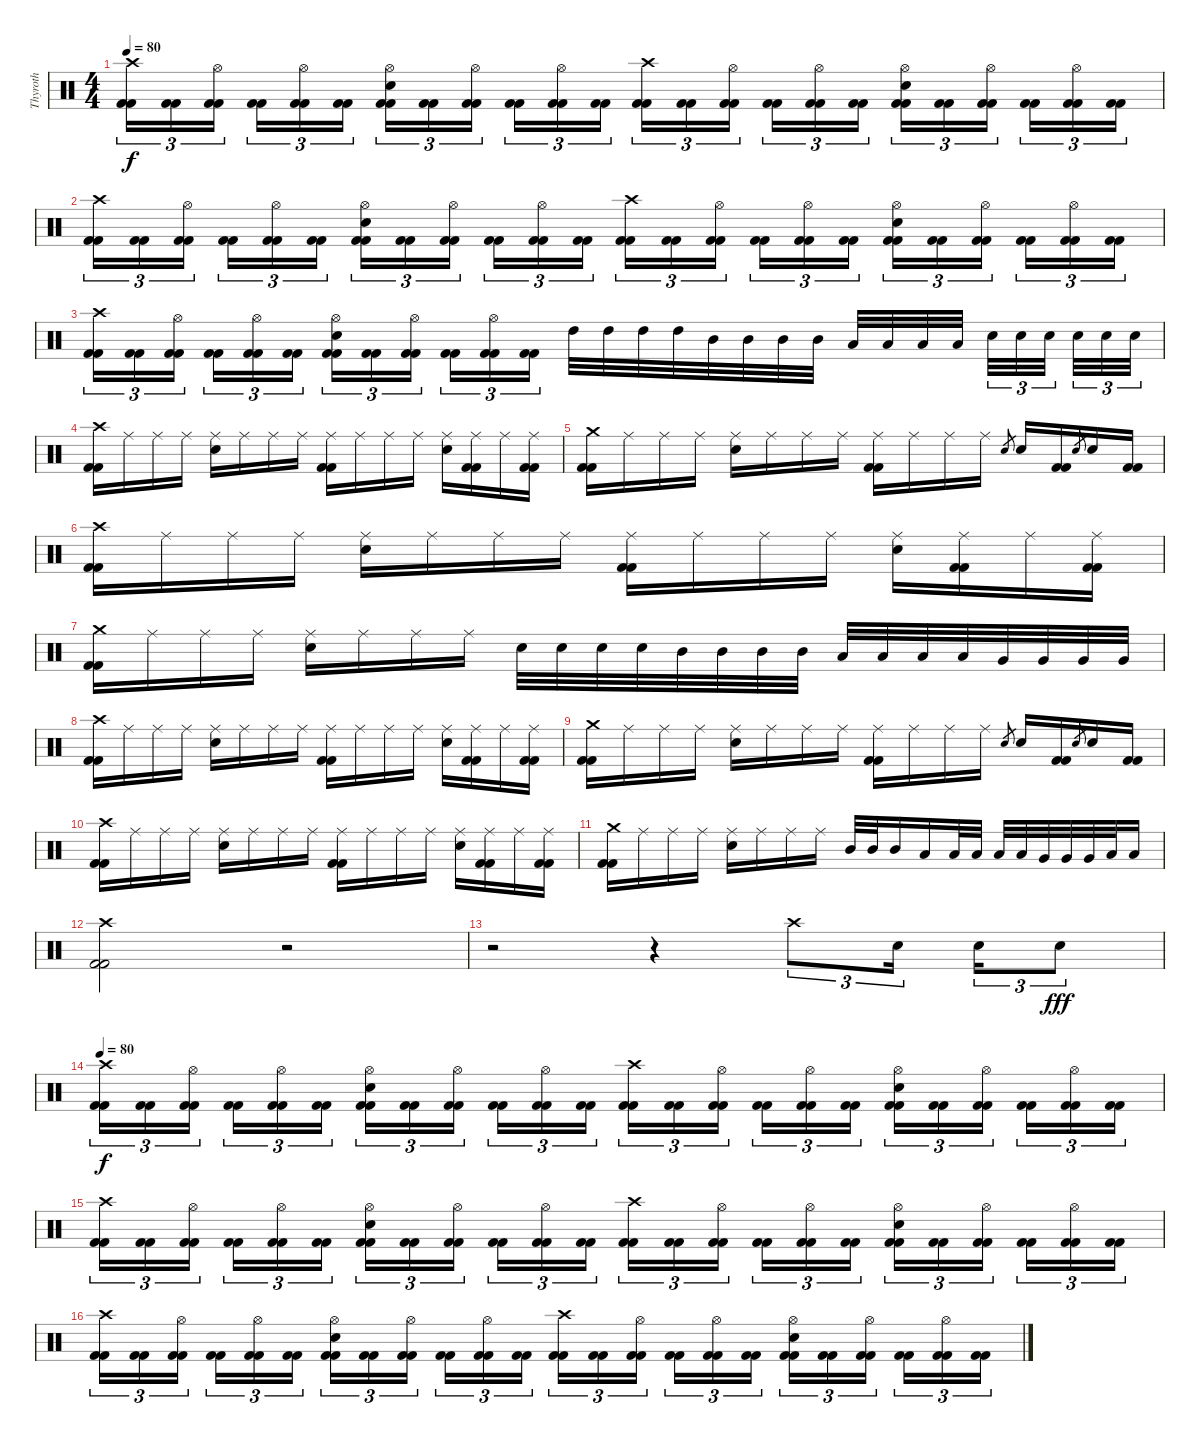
\track ("Thyroth" "Thyroth") {instrument percussion}
\staff {score}
\articulation defaults
\ts (4 4)
\tempo 80
\clef neutral
\ks c
("Kick (hit) 2" "Kick (hit) 2" "Crash high (hit)").16{tu (3 2) dy f} ("Kick (hit) 2" "Kick (hit) 2").16{tu (3 2)} ("Kick (hit) 2" "Kick (hit) 2" "Hi-Hat (open)").16{tu (3 2)} ("Kick (hit) 2" "Kick (hit) 2").16{tu (3 2)} ("Kick (hit) 2" "Kick (hit) 2" "Hi-Hat (open)").16{tu (3 2)} ("Kick (hit) 2" "Kick (hit) 2").16{tu (3 2)} ("Kick (hit) 2" "Kick (hit) 2" "Snare (hit) 2" "Hi-Hat (open)").16{tu (3 2)} ("Kick (hit) 2" "Kick (hit) 2").16{tu (3 2)} ("Kick (hit) 2" "Kick (hit) 2" "Hi-Hat (open)").16{tu (3 2)} ("Kick (hit) 2" "Kick (hit) 2").16{tu (3 2)} ("Kick (hit) 2" "Kick (hit) 2" "Hi-Hat (open)").16{tu (3 2)} ("Kick (hit) 2" "Kick (hit) 2").16{tu (3 2)} ("Kick (hit) 2" "Kick (hit) 2" "Crash high (hit)").16{tu (3 2)} ("Kick (hit) 2" "Kick (hit) 2").16{tu (3 2)} ("Kick (hit) 2" "Kick (hit) 2" "Hi-Hat (open)").16{tu (3 2)} ("Kick (hit) 2" "Kick (hit) 2").16{tu (3 2)} ("Kick (hit) 2" "Kick (hit) 2" "Hi-Hat (open)").16{tu (3 2)} ("Kick (hit) 2" "Kick (hit) 2").16{tu (3 2)} ("Kick (hit) 2" "Kick (hit) 2" "Snare (hit) 2" "Hi-Hat (open)").16{tu (3 2)} ("Kick (hit) 2" "Kick (hit) 2").16{tu (3 2)} ("Kick (hit) 2" "Kick (hit) 2" "Hi-Hat (open)").16{tu (3 2)} ("Kick (hit) 2" "Kick (hit) 2").16{tu (3 2)} ("Kick (hit) 2" "Kick (hit) 2" "Hi-Hat (open)").16{tu (3 2)} ("Kick (hit) 2" "Kick (hit) 2").16{tu (3 2)} |
("Kick (hit) 2" "Kick (hit) 2" "Crash high (hit)").16{tu (3 2)} ("Kick (hit) 2" "Kick (hit) 2").16{tu (3 2)} ("Kick (hit) 2" "Kick (hit) 2" "Hi-Hat (open)").16{tu (3 2)} ("Kick (hit) 2" "Kick (hit) 2").16{tu (3 2)} ("Kick (hit) 2" "Kick (hit) 2" "Hi-Hat (open)").16{tu (3 2)} ("Kick (hit) 2" "Kick (hit) 2").16{tu (3 2)} ("Kick (hit) 2" "Kick (hit) 2" "Snare (hit) 2" "Hi-Hat (open)").16{tu (3 2)} ("Kick (hit) 2" "Kick (hit) 2").16{tu (3 2)} ("Kick (hit) 2" "Kick (hit) 2" "Hi-Hat (open)").16{tu (3 2)} ("Kick (hit) 2" "Kick (hit) 2").16{tu (3 2)} ("Kick (hit) 2" "Kick (hit) 2" "Hi-Hat (open)").16{tu (3 2)} ("Kick (hit) 2" "Kick (hit) 2").16{tu (3 2)} ("Kick (hit) 2" "Kick (hit) 2" "Crash high (hit)").16{tu (3 2)} ("Kick (hit) 2" "Kick (hit) 2").16{tu (3 2)} ("Kick (hit) 2" "Kick (hit) 2" "Hi-Hat (open)").16{tu (3 2)} ("Kick (hit) 2" "Kick (hit) 2").16{tu (3 2)} ("Kick (hit) 2" "Kick (hit) 2" "Hi-Hat (open)").16{tu (3 2)} ("Kick (hit) 2" "Kick (hit) 2").16{tu (3 2)} ("Kick (hit) 2" "Kick (hit) 2" "Snare (hit) 2" "Hi-Hat (open)").16{tu (3 2)} ("Kick (hit) 2" "Kick (hit) 2").16{tu (3 2)} ("Kick (hit) 2" "Kick (hit) 2" "Hi-Hat (open)").16{tu (3 2)} ("Kick (hit) 2" "Kick (hit) 2").16{tu (3 2)} ("Kick (hit) 2" "Kick (hit) 2" "Hi-Hat (open)").16{tu (3 2)} ("Kick (hit) 2" "Kick (hit) 2").16{tu (3 2)} |
("Kick (hit) 2" "Kick (hit) 2" "Crash high (hit)").16{tu (3 2)} ("Kick (hit) 2" "Kick (hit) 2").16{tu (3 2)} ("Kick (hit) 2" "Kick (hit) 2" "Hi-Hat (open)").16{tu (3 2)} ("Kick (hit) 2" "Kick (hit) 2").16{tu (3 2)} ("Kick (hit) 2" "Kick (hit) 2" "Hi-Hat (open)").16{tu (3 2)} ("Kick (hit) 2" "Kick (hit) 2").16{tu (3 2)} ("Kick (hit) 2" "Kick (hit) 2" "Snare (hit) 2" "Hi-Hat (open)").16{tu (3 2)} ("Kick (hit) 2" "Kick (hit) 2").16{tu (3 2)} ("Kick (hit) 2" "Kick (hit) 2" "Hi-Hat (open)").16{tu (3 2)} ("Kick (hit) 2" "Kick (hit) 2").16{tu (3 2)} ("Kick (hit) 2" "Kick (hit) 2" "Hi-Hat (open)").16{tu (3 2)} ("Kick (hit) 2" "Kick (hit) 2").16{tu (3 2)} "High Tom (hit)".32 "High Tom (hit)".32 "High Tom (hit)".32 "High Tom (hit)".32 "Mid Tom (hit)".32 "Mid Tom (hit)".32 "Mid Tom (hit)".32 "Mid Tom (hit)".32 "Low Tom (hit)".32 "Low Tom (hit)".32 "Low Tom (hit)".32 "Low Tom (hit)".32 "Snare (hit) 2".32{tu (3 2)} "Snare (hit) 2".32{tu (3 2)} "Snare (hit) 2".32{tu (3 2)} "Snare (hit) 2".32{tu (3 2)} "Snare (hit) 2".32{tu (3 2)} "Snare (hit) 2".32{tu (3 2)} |
("Kick (hit) 2" "Kick (hit) 2" "Crash high (hit)").16 "Ride (middle)".16 "Ride (middle)".16 "Ride (middle)".16 ("Snare (hit) 2" "Ride (middle)").16 "Ride (middle)".16 "Ride (middle)".16 "Ride (middle)".16 ("Kick (hit) 2" "Kick (hit) 2" "Ride (middle)").16 "Ride (middle)".16 "Ride (middle)".16 "Ride (middle)".16 ("Snare (hit) 2" "Ride (middle)").16 ("Kick (hit) 2" "Kick (hit) 2" "Ride (middle)").16 "Ride (middle)".16 ("Kick (hit) 2" "Kick (hit) 2" "Ride (middle)").16 |
("Kick (hit) 2" "Kick (hit) 2" "Crash medium (hit)").16 "Ride (middle)".16 "Ride (middle)".16 "Ride (middle)".16 ("Snare (hit) 2" "Ride (middle)").16 "Ride (middle)".16 "Ride (middle)".16 "Ride (middle)".16 ("Kick (hit) 2" "Kick (hit) 2" "Ride (middle)").16 "Ride (middle)".16 "Ride (middle)".16 "Ride (middle)".16 "Snare (hit) 2".8{gr} "Snare (hit) 2".16 ("Kick (hit) 2" "Kick (hit) 2").16 "Snare (hit) 2".8{gr} "Snare (hit) 2".16 ("Kick (hit) 2" "Kick (hit) 2").16 |
("Kick (hit) 2" "Kick (hit) 2" "Crash high (hit)").16 "Ride (middle)".16 "Ride (middle)".16 "Ride (middle)".16 ("Snare (hit) 2" "Ride (middle)").16 "Ride (middle)".16 "Ride (middle)".16 "Ride (middle)".16 ("Kick (hit) 2" "Kick (hit) 2" "Ride (middle)").16 "Ride (middle)".16 "Ride (middle)".16 "Ride (middle)".16 ("Snare (hit) 2" "Ride (middle)").16 ("Kick (hit) 2" "Kick (hit) 2" "Ride (middle)").16 "Ride (middle)".16 ("Kick (hit) 2" "Kick (hit) 2" "Ride (middle)").16 |
("Kick (hit) 2" "Kick (hit) 2" "Crash medium (hit)").16 "Ride (middle)".16 "Ride (middle)".16 "Ride (middle)".16 ("Snare (hit) 2" "Ride (middle)").16 "Ride (middle)".16 "Ride (middle)".16 "Ride (middle)".16 "Snare (hit) 2".32 "Snare (hit) 2".32 "Snare (hit) 2".32 "Snare (hit) 2".32 "Mid Tom (hit)".32 "Mid Tom (hit)".32 "Mid Tom (hit)".32 "Mid Tom (hit)".32 "Low Tom (hit)".32 "Low Tom (hit)".32 "Low Tom (hit)".32 "Low Tom (hit)".32 "Very Low Tom (hit)".32 "Very Low Tom (hit)".32 "Very Low Tom (hit)".32 "Very Low Tom (hit)".32 |
("Kick (hit) 2" "Kick (hit) 2" "Crash high (hit)").16 "Ride (middle)".16 "Ride (middle)".16 "Ride (middle)".16 ("Snare (hit) 2" "Ride (middle)").16 "Ride (middle)".16 "Ride (middle)".16 "Ride (middle)".16 ("Kick (hit) 2" "Kick (hit) 2" "Ride (middle)").16 "Ride (middle)".16 "Ride (middle)".16 "Ride (middle)".16 ("Snare (hit) 2" "Ride (middle)").16 ("Kick (hit) 2" "Kick (hit) 2" "Ride (middle)").16 "Ride (middle)".16 ("Kick (hit) 2" "Kick (hit) 2" "Ride (middle)").16 |
("Kick (hit) 2" "Kick (hit) 2" "Crash medium (hit)").16 "Ride (middle)".16 "Ride (middle)".16 "Ride (middle)".16 ("Snare (hit) 2" "Ride (middle)").16 "Ride (middle)".16 "Ride (middle)".16 "Ride (middle)".16 ("Kick (hit) 2" "Kick (hit) 2" "Ride (middle)").16 "Ride (middle)".16 "Ride (middle)".16 "Ride (middle)".16 "Snare (hit) 2".8{gr} "Snare (hit) 2".16 ("Kick (hit) 2" "Kick (hit) 2").16 "Snare (hit) 2".8{gr} "Snare (hit) 2".16 ("Kick (hit) 2" "Kick (hit) 2").16 |
("Kick (hit) 2" "Kick (hit) 2" "Crash high (hit)").16 "Ride (middle)".16 "Ride (middle)".16 "Ride (middle)".16 ("Snare (hit) 2" "Ride (middle)").16 "Ride (middle)".16 "Ride (middle)".16 "Ride (middle)".16 ("Kick (hit) 2" "Kick (hit) 2" "Ride (middle)").16 "Ride (middle)".16 "Ride (middle)".16 "Ride (middle)".16 ("Snare (hit) 2" "Ride (middle)").16 ("Kick (hit) 2" "Kick (hit) 2" "Ride (middle)").16 "Ride (middle)".16 ("Kick (hit) 2" "Kick (hit) 2" "Ride (middle)").16 |
("Kick (hit) 2" "Kick (hit) 2" "Crash medium (hit)").16 "Ride (middle)".16 "Ride (middle)".16 "Ride (middle)".16 ("Snare (hit) 2" "Ride (middle)").16 "Ride (middle)".16 "Ride (middle)".16 "Ride (middle)".16 "Mid Tom (hit)".32 "Mid Tom (hit)".32 "Mid Tom (hit)".16 "Low Tom (hit)".16 "Low Tom (hit)".32 "Low Tom (hit)".32 "Low Tom (hit)".32 "Low Tom (hit)".32 "Very Low Tom (hit)".32 "Very Low Tom (hit)".32 "Very Low Tom (hit)".32 "Low Floor Tom (hit)".32 "Low Floor Tom (hit)".16 |
("Kick (hit) 2" "Kick (hit) 2" "Crash high (hit)").2 r.2 |
r.2 r.4 "Crash high (hit)".8{tu (3 2)} "Snare (hit) 2".16{tu (3 2)} "Snare (hit) 2".16{tu (3 2)} "Snare (hit) 2".8{tu (3 2) dy fff} |
\tempo 80
("Kick (hit) 2" "Kick (hit) 2" "Crash high (hit)").16{tu (3 2) dy f} ("Kick (hit) 2" "Kick (hit) 2").16{tu (3 2)} ("Kick (hit) 2" "Kick (hit) 2" "Hi-Hat (open)").16{tu (3 2)} ("Kick (hit) 2" "Kick (hit) 2").16{tu (3 2)} ("Kick (hit) 2" "Kick (hit) 2" "Hi-Hat (open)").16{tu (3 2)} ("Kick (hit) 2" "Kick (hit) 2").16{tu (3 2)} ("Kick (hit) 2" "Kick (hit) 2" "Snare (hit) 2" "Hi-Hat (open)").16{tu (3 2)} ("Kick (hit) 2" "Kick (hit) 2").16{tu (3 2)} ("Kick (hit) 2" "Kick (hit) 2" "Hi-Hat (open)").16{tu (3 2)} ("Kick (hit) 2" "Kick (hit) 2").16{tu (3 2)} ("Kick (hit) 2" "Kick (hit) 2" "Hi-Hat (open)").16{tu (3 2)} ("Kick (hit) 2" "Kick (hit) 2").16{tu (3 2)} ("Kick (hit) 2" "Kick (hit) 2" "Crash high (hit)").16{tu (3 2)} ("Kick (hit) 2" "Kick (hit) 2").16{tu (3 2)} ("Kick (hit) 2" "Kick (hit) 2" "Hi-Hat (open)").16{tu (3 2)} ("Kick (hit) 2" "Kick (hit) 2").16{tu (3 2)} ("Kick (hit) 2" "Kick (hit) 2" "Hi-Hat (open)").16{tu (3 2)} ("Kick (hit) 2" "Kick (hit) 2").16{tu (3 2)} ("Kick (hit) 2" "Kick (hit) 2" "Snare (hit) 2" "Hi-Hat (open)").16{tu (3 2)} ("Kick (hit) 2" "Kick (hit) 2").16{tu (3 2)} ("Kick (hit) 2" "Kick (hit) 2" "Hi-Hat (open)").16{tu (3 2)} ("Kick (hit) 2" "Kick (hit) 2").16{tu (3 2)} ("Kick (hit) 2" "Kick (hit) 2" "Hi-Hat (open)").16{tu (3 2)} ("Kick (hit) 2" "Kick (hit) 2").16{tu (3 2)} |
("Kick (hit) 2" "Kick (hit) 2" "Crash high (hit)").16{tu (3 2)} ("Kick (hit) 2" "Kick (hit) 2").16{tu (3 2)} ("Kick (hit) 2" "Kick (hit) 2" "Hi-Hat (open)").16{tu (3 2)} ("Kick (hit) 2" "Kick (hit) 2").16{tu (3 2)} ("Kick (hit) 2" "Kick (hit) 2" "Hi-Hat (open)").16{tu (3 2)} ("Kick (hit) 2" "Kick (hit) 2").16{tu (3 2)} ("Kick (hit) 2" "Kick (hit) 2" "Snare (hit) 2" "Hi-Hat (open)").16{tu (3 2)} ("Kick (hit) 2" "Kick (hit) 2").16{tu (3 2)} ("Kick (hit) 2" "Kick (hit) 2" "Hi-Hat (open)").16{tu (3 2)} ("Kick (hit) 2" "Kick (hit) 2").16{tu (3 2)} ("Kick (hit) 2" "Kick (hit) 2" "Hi-Hat (open)").16{tu (3 2)} ("Kick (hit) 2" "Kick (hit) 2").16{tu (3 2)} ("Kick (hit) 2" "Kick (hit) 2" "Crash high (hit)").16{tu (3 2)} ("Kick (hit) 2" "Kick (hit) 2").16{tu (3 2)} ("Kick (hit) 2" "Kick (hit) 2" "Hi-Hat (open)").16{tu (3 2)} ("Kick (hit) 2" "Kick (hit) 2").16{tu (3 2)} ("Kick (hit) 2" "Kick (hit) 2" "Hi-Hat (open)").16{tu (3 2)} ("Kick (hit) 2" "Kick (hit) 2").16{tu (3 2)} ("Kick (hit) 2" "Kick (hit) 2" "Snare (hit) 2" "Hi-Hat (open)").16{tu (3 2)} ("Kick (hit) 2" "Kick (hit) 2").16{tu (3 2)} ("Kick (hit) 2" "Kick (hit) 2" "Hi-Hat (open)").16{tu (3 2)} ("Kick (hit) 2" "Kick (hit) 2").16{tu (3 2)} ("Kick (hit) 2" "Kick (hit) 2" "Hi-Hat (open)").16{tu (3 2)} ("Kick (hit) 2" "Kick (hit) 2").16{tu (3 2)} |
("Kick (hit) 2" "Kick (hit) 2" "Crash high (hit)").16{tu (3 2)} ("Kick (hit) 2" "Kick (hit) 2").16{tu (3 2)} ("Kick (hit) 2" "Kick (hit) 2" "Hi-Hat (open)").16{tu (3 2)} ("Kick (hit) 2" "Kick (hit) 2").16{tu (3 2)} ("Kick (hit) 2" "Kick (hit) 2" "Hi-Hat (open)").16{tu (3 2)} ("Kick (hit) 2" "Kick (hit) 2").16{tu (3 2)} ("Kick (hit) 2" "Kick (hit) 2" "Snare (hit) 2" "Hi-Hat (open)").16{tu (3 2)} ("Kick (hit) 2" "Kick (hit) 2").16{tu (3 2)} ("Kick (hit) 2" "Kick (hit) 2" "Hi-Hat (open)").16{tu (3 2)} ("Kick (hit) 2" "Kick (hit) 2").16{tu (3 2)} ("Kick (hit) 2" "Kick (hit) 2" "Hi-Hat (open)").16{tu (3 2)} ("Kick (hit) 2" "Kick (hit) 2").16{tu (3 2)} ("Kick (hit) 2" "Kick (hit) 2" "Crash high (hit)").16{tu (3 2)} ("Kick (hit) 2" "Kick (hit) 2").16{tu (3 2)} ("Kick (hit) 2" "Kick (hit) 2" "Hi-Hat (open)").16{tu (3 2)} ("Kick (hit) 2" "Kick (hit) 2").16{tu (3 2)} ("Kick (hit) 2" "Kick (hit) 2" "Hi-Hat (open)").16{tu (3 2)} ("Kick (hit) 2" "Kick (hit) 2").16{tu (3 2)} ("Kick (hit) 2" "Kick (hit) 2" "Snare (hit) 2" "Hi-Hat (open)").16{tu (3 2)} ("Kick (hit) 2" "Kick (hit) 2").16{tu (3 2)} ("Kick (hit) 2" "Kick (hit) 2" "Hi-Hat (open)").16{tu (3 2)} ("Kick (hit) 2" "Kick (hit) 2").16{tu (3 2)} ("Kick (hit) 2" "Kick (hit) 2" "Hi-Hat (open)").16{tu (3 2)} ("Kick (hit) 2" "Kick (hit) 2").16{tu (3 2)}
